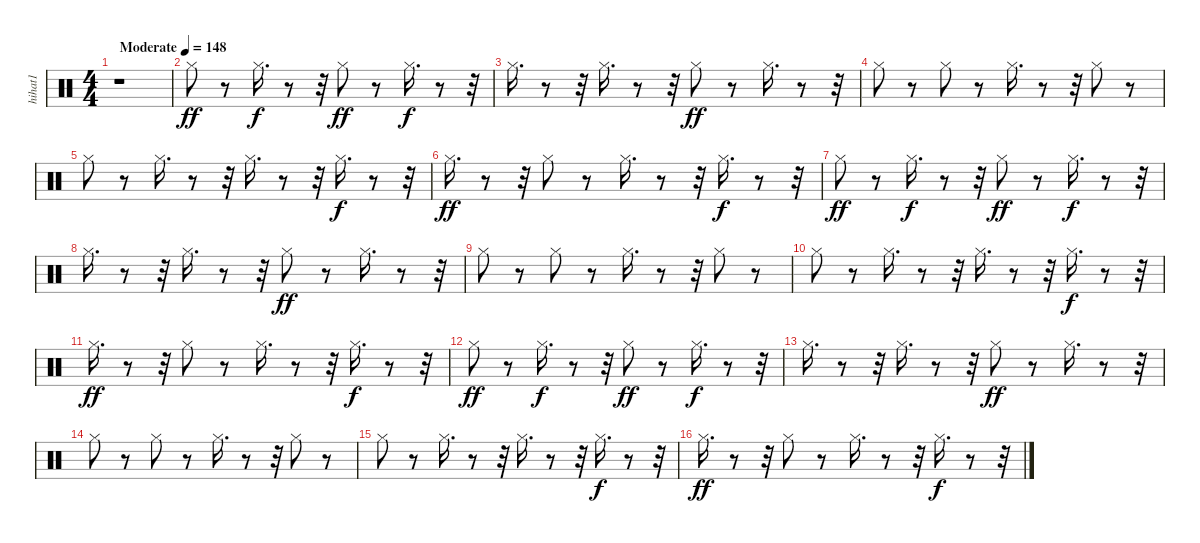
\track ("hihat1              " "hihat1    ") {instrument percussion}
\staff {score}
\articulation defaults
\ts (4 4)
\tempo (148 "Moderate")
\clef neutral
\ks c
r.1{dy ff} |
"Hi-Hat (closed)".8 r.8 "Hi-Hat (closed)".16{d dy f} r.8 r.32 "Hi-Hat (closed)".8{dy ff} r.8 "Hi-Hat (closed)".16{d dy f} r.8 r.32 |
"Hi-Hat (closed)".16{d} r.8 r.32 "Hi-Hat (closed)".16{d} r.8 r.32 "Hi-Hat (closed)".8{dy ff} r.8 "Hi-Hat (closed)".16{d} r.8 r.32 |
"Hi-Hat (closed)".8 r.8 "Hi-Hat (closed)".8 r.8 "Hi-Hat (closed)".16{d} r.8 r.32 "Hi-Hat (closed)".8 r.8 |
"Hi-Hat (closed)".8 r.8 "Hi-Hat (closed)".16{d} r.8 r.32 "Hi-Hat (closed)".16{d} r.8 r.32 "Hi-Hat (closed)".16{d dy f} r.8 r.32 |
"Hi-Hat (closed)".16{d dy ff} r.8 r.32 "Hi-Hat (closed)".8 r.8 "Hi-Hat (closed)".16{d} r.8 r.32 "Hi-Hat (closed)".16{d dy f} r.8 r.32 |
"Hi-Hat (closed)".8{dy ff} r.8 "Hi-Hat (closed)".16{d dy f} r.8 r.32 "Hi-Hat (closed)".8{dy ff} r.8 "Hi-Hat (closed)".16{d dy f} r.8 r.32 |
"Hi-Hat (closed)".16{d} r.8 r.32 "Hi-Hat (closed)".16{d} r.8 r.32 "Hi-Hat (closed)".8{dy ff} r.8 "Hi-Hat (closed)".16{d} r.8 r.32 |
"Hi-Hat (closed)".8 r.8 "Hi-Hat (closed)".8 r.8 "Hi-Hat (closed)".16{d} r.8 r.32 "Hi-Hat (closed)".8 r.8 |
"Hi-Hat (closed)".8 r.8 "Hi-Hat (closed)".16{d} r.8 r.32 "Hi-Hat (closed)".16{d} r.8 r.32 "Hi-Hat (closed)".16{d dy f} r.8 r.32 |
"Hi-Hat (closed)".16{d dy ff} r.8 r.32 "Hi-Hat (closed)".8 r.8 "Hi-Hat (closed)".16{d} r.8 r.32 "Hi-Hat (closed)".16{d dy f} r.8 r.32 |
"Hi-Hat (closed)".8{dy ff} r.8 "Hi-Hat (closed)".16{d dy f} r.8 r.32 "Hi-Hat (closed)".8{dy ff} r.8 "Hi-Hat (closed)".16{d dy f} r.8 r.32 |
"Hi-Hat (closed)".16{d} r.8 r.32 "Hi-Hat (closed)".16{d} r.8 r.32 "Hi-Hat (closed)".8{dy ff} r.8 "Hi-Hat (closed)".16{d} r.8 r.32 |
"Hi-Hat (closed)".8 r.8 "Hi-Hat (closed)".8 r.8 "Hi-Hat (closed)".16{d} r.8 r.32 "Hi-Hat (closed)".8 r.8 |
"Hi-Hat (closed)".8 r.8 "Hi-Hat (closed)".16{d} r.8 r.32 "Hi-Hat (closed)".16{d} r.8 r.32 "Hi-Hat (closed)".16{d dy f} r.8 r.32 |
"Hi-Hat (closed)".16{d dy ff} r.8 r.32 "Hi-Hat (closed)".8 r.8 "Hi-Hat (closed)".16{d} r.8 r.32 "Hi-Hat (closed)".16{d dy f} r.8 r.32
